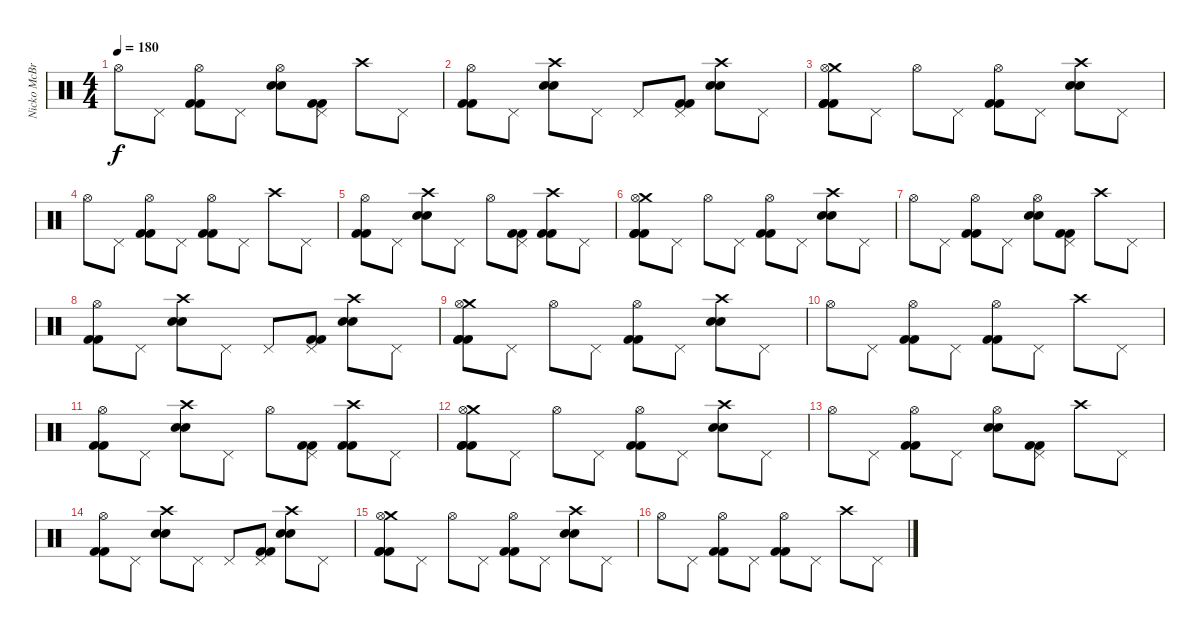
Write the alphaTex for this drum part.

\track ("Nicko McBrain" "Nicko McBr") {instrument percussion}
\staff {score}
\articulation defaults
\ts (4 4)
\tempo 180
\clef neutral
\ks c "Hi-Hat (open)".8{dy f} "Pedal Hi-Hat (hit)".8
("Hi-Hat (open)" "Kick (hit) 2" "Kick (hit) 2").8 "Pedal Hi-Hat (hit)".8 ("Hi-Hat (open)" "Snare (hit) 2" "Snare (hit) 2").8 ("Pedal Hi-Hat (hit)" "Kick (hit) 2" "Kick (hit) 2").8 "Crash high (hit)".8 "Pedal Hi-Hat (hit)".8 |
("Hi-Hat (open)" "Kick (hit) 2" "Kick (hit) 2").8 "Pedal Hi-Hat (hit)".8 ("Crash high (hit)" "Snare (hit) 2" "Snare (hit) 2").8 "Pedal Hi-Hat (hit)".8 "Pedal Hi-Hat (hit)".8 ("Pedal Hi-Hat (hit)" "Kick (hit) 2" "Kick (hit) 2").8 ("Crash high (hit)" "Snare (hit) 2" "Snare (hit) 2").8 "Pedal Hi-Hat (hit)".8 |
("Crash medium (hit)" "Hi-Hat (open)" "Kick (hit) 2" "Kick (hit) 2" "Kick (hit) 2").8 "Pedal Hi-Hat (hit)".8 "Hi-Hat (open)".8 "Pedal Hi-Hat (hit)".8 ("Hi-Hat (open)" "Kick (hit) 2" "Kick (hit) 2").8 "Pedal Hi-Hat (hit)".8 ("Crash high (hit)" "Snare (hit) 2" "Snare (hit) 2").8 "Pedal Hi-Hat (hit)".8 |
"Hi-Hat (open)".8 "Pedal Hi-Hat (hit)".8 ("Hi-Hat (open)" "Kick (hit) 2" "Kick (hit) 2").8 "Pedal Hi-Hat (hit)".8 ("Hi-Hat (open)" "Kick (hit) 2" "Kick (hit) 2").8 "Pedal Hi-Hat (hit)".8 "Crash high (hit)".8 "Pedal Hi-Hat (hit)".8 |
("Hi-Hat (open)" "Kick (hit) 2" "Kick (hit) 2").8 "Pedal Hi-Hat (hit)".8 ("Crash high (hit)" "Snare (hit) 2" "Snare (hit) 2").8 "Pedal Hi-Hat (hit)".8 "Hi-Hat (open)".8 ("Pedal Hi-Hat (hit)" "Kick (hit) 2" "Kick (hit) 2").8 ("Crash high (hit)" "Kick (hit) 2" "Kick (hit) 2").8 "Pedal Hi-Hat (hit)".8 |
("Crash medium (hit)" "Hi-Hat (open)" "Kick (hit) 2" "Kick (hit) 2" "Kick (hit) 2").8 "Pedal Hi-Hat (hit)".8 "Hi-Hat (open)".8 "Pedal Hi-Hat (hit)".8 ("Hi-Hat (open)" "Kick (hit) 2" "Kick (hit) 2").8 "Pedal Hi-Hat (hit)".8 ("Crash high (hit)" "Snare (hit) 2" "Snare (hit) 2").8 "Pedal Hi-Hat (hit)".8 |
"Hi-Hat (open)".8 "Pedal Hi-Hat (hit)".8 ("Hi-Hat (open)" "Kick (hit) 2" "Kick (hit) 2").8 "Pedal Hi-Hat (hit)".8 ("Hi-Hat (open)" "Snare (hit) 2" "Snare (hit) 2").8 ("Pedal Hi-Hat (hit)" "Kick (hit) 2" "Kick (hit) 2").8 "Crash high (hit)".8 "Pedal Hi-Hat (hit)".8 |
("Hi-Hat (open)" "Kick (hit) 2" "Kick (hit) 2").8 "Pedal Hi-Hat (hit)".8 ("Crash high (hit)" "Snare (hit) 2" "Snare (hit) 2").8 "Pedal Hi-Hat (hit)".8 "Pedal Hi-Hat (hit)".8 ("Pedal Hi-Hat (hit)" "Kick (hit) 2" "Kick (hit) 2").8 ("Crash high (hit)" "Snare (hit) 2" "Snare (hit) 2").8 "Pedal Hi-Hat (hit)".8 |
("Crash medium (hit)" "Hi-Hat (open)" "Kick (hit) 2" "Kick (hit) 2" "Kick (hit) 2").8 "Pedal Hi-Hat (hit)".8 "Hi-Hat (open)".8 "Pedal Hi-Hat (hit)".8 ("Hi-Hat (open)" "Kick (hit) 2" "Kick (hit) 2").8 "Pedal Hi-Hat (hit)".8 ("Crash high (hit)" "Snare (hit) 2" "Snare (hit) 2").8 "Pedal Hi-Hat (hit)".8 |
"Hi-Hat (open)".8 "Pedal Hi-Hat (hit)".8 ("Hi-Hat (open)" "Kick (hit) 2" "Kick (hit) 2").8 "Pedal Hi-Hat (hit)".8 ("Hi-Hat (open)" "Kick (hit) 2" "Kick (hit) 2").8 "Pedal Hi-Hat (hit)".8 "Crash high (hit)".8 "Pedal Hi-Hat (hit)".8 |
("Hi-Hat (open)" "Kick (hit) 2" "Kick (hit) 2").8 "Pedal Hi-Hat (hit)".8 ("Crash high (hit)" "Snare (hit) 2" "Snare (hit) 2").8 "Pedal Hi-Hat (hit)".8 "Hi-Hat (open)".8 ("Pedal Hi-Hat (hit)" "Kick (hit) 2" "Kick (hit) 2").8 ("Crash high (hit)" "Kick (hit) 2" "Kick (hit) 2").8 "Pedal Hi-Hat (hit)".8 |
("Crash medium (hit)" "Hi-Hat (open)" "Kick (hit) 2" "Kick (hit) 2" "Kick (hit) 2").8 "Pedal Hi-Hat (hit)".8 "Hi-Hat (open)".8 "Pedal Hi-Hat (hit)".8 ("Hi-Hat (open)" "Kick (hit) 2" "Kick (hit) 2").8 "Pedal Hi-Hat (hit)".8 ("Crash high (hit)" "Snare (hit) 2" "Snare (hit) 2").8 "Pedal Hi-Hat (hit)".8 |
"Hi-Hat (open)".8 "Pedal Hi-Hat (hit)".8 ("Hi-Hat (open)" "Kick (hit) 2" "Kick (hit) 2").8 "Pedal Hi-Hat (hit)".8 ("Hi-Hat (open)" "Snare (hit) 2" "Snare (hit) 2").8 ("Pedal Hi-Hat (hit)" "Kick (hit) 2" "Kick (hit) 2").8 "Crash high (hit)".8 "Pedal Hi-Hat (hit)".8 |
("Hi-Hat (open)" "Kick (hit) 2" "Kick (hit) 2").8 "Pedal Hi-Hat (hit)".8 ("Crash high (hit)" "Snare (hit) 2" "Snare (hit) 2").8 "Pedal Hi-Hat (hit)".8 "Pedal Hi-Hat (hit)".8 ("Pedal Hi-Hat (hit)" "Kick (hit) 2" "Kick (hit) 2").8 ("Crash high (hit)" "Snare (hit) 2" "Snare (hit) 2").8 "Pedal Hi-Hat (hit)".8 |
("Crash medium (hit)" "Hi-Hat (open)" "Kick (hit) 2" "Kick (hit) 2" "Kick (hit) 2").8 "Pedal Hi-Hat (hit)".8 "Hi-Hat (open)".8 "Pedal Hi-Hat (hit)".8 ("Hi-Hat (open)" "Kick (hit) 2" "Kick (hit) 2").8 "Pedal Hi-Hat (hit)".8 ("Crash high (hit)" "Snare (hit) 2" "Snare (hit) 2").8 "Pedal Hi-Hat (hit)".8 |
"Hi-Hat (open)".8 "Pedal Hi-Hat (hit)".8 ("Hi-Hat (open)" "Kick (hit) 2" "Kick (hit) 2").8 "Pedal Hi-Hat (hit)".8 ("Hi-Hat (open)" "Kick (hit) 2" "Kick (hit) 2").8 "Pedal Hi-Hat (hit)".8 "Crash high (hit)".8 "Pedal Hi-Hat (hit)".8
